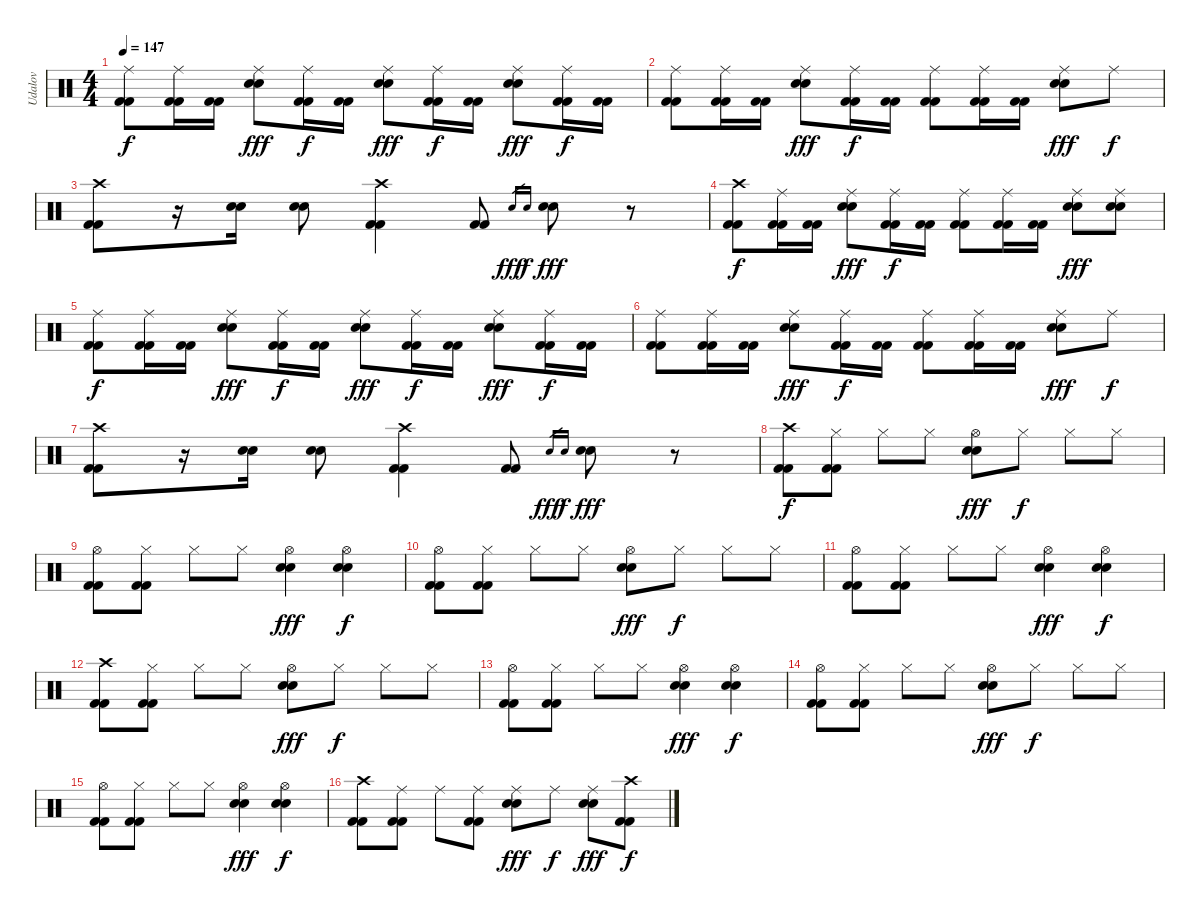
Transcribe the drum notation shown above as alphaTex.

\track ("Udalov" "Udalov") {instrument percussion}
\staff {score}
\articulation defaults
\ts (4 4)
\tempo 147
\clef neutral
\ks c
("Ride (middle)" "Kick (hit) 2" "Kick (hit) 2").8{dy f} ("Ride (middle)" "Kick (hit) 2" "Kick (hit) 2").16 ("Kick (hit) 2" "Kick (hit) 2").16 ("Ride (middle)" "Electric Snare (hit)" "Electric Snare (hit)").8{dy fff} ("Ride (middle)" "Kick (hit) 2" "Kick (hit) 2").16{dy f} ("Kick (hit) 2" "Kick (hit) 2").16 ("Ride (middle)" "Electric Snare (hit)" "Electric Snare (hit)").8{dy fff} ("Ride (middle)" "Kick (hit) 2" "Kick (hit) 2").16{dy f} ("Kick (hit) 2" "Kick (hit) 2").16 ("Ride (middle)" "Electric Snare (hit)" "Electric Snare (hit)").8{dy fff} ("Ride (middle)" "Kick (hit) 2" "Kick (hit) 2").16{dy f} ("Kick (hit) 2" "Kick (hit) 2").16 |
("Ride (middle)" "Kick (hit) 2" "Kick (hit) 2").8 ("Ride (middle)" "Kick (hit) 2" "Kick (hit) 2").16 ("Kick (hit) 2" "Kick (hit) 2").16 ("Ride (middle)" "Electric Snare (hit)" "Electric Snare (hit)").8{dy fff} ("Ride (middle)" "Kick (hit) 2" "Kick (hit) 2").16{dy f} ("Kick (hit) 2" "Kick (hit) 2").16 ("Ride (middle)" "Kick (hit) 2" "Kick (hit) 2").8 ("Ride (middle)" "Kick (hit) 2" "Kick (hit) 2").16 ("Kick (hit) 2" "Kick (hit) 2").16 ("Ride (middle)" "Electric Snare (hit)" "Electric Snare (hit)").8{dy fff} "Ride (middle)".8{dy f} |
("Crash high (hit)" "Kick (hit) 2" "Kick (hit) 2").8 r.16 ("Electric Snare (hit)" "Electric Snare (hit)").16 ("Electric Snare (hit)" "Electric Snare (hit)").8 ("Crash high (hit)" "Kick (hit) 2" "Kick (hit) 2").4 ("Kick (hit) 2" "Kick (hit) 2").8 "Electric Snare (hit)".16{gr dy fff} "Electric Snare (hit)".16{gr dy f} ("Electric Snare (hit)" "Electric Snare (hit)").8{dy fff} r.8 |
("Crash high (hit)" "Kick (hit) 2" "Kick (hit) 2").8{dy f} ("Ride (middle)" "Kick (hit) 2" "Kick (hit) 2").16 ("Kick (hit) 2" "Kick (hit) 2").16 ("Ride (middle)" "Electric Snare (hit)" "Electric Snare (hit)").8{dy fff} ("Ride (middle)" "Kick (hit) 2" "Kick (hit) 2").16{dy f} ("Kick (hit) 2" "Kick (hit) 2").16 ("Ride (middle)" "Kick (hit) 2" "Kick (hit) 2").8 ("Ride (middle)" "Kick (hit) 2" "Kick (hit) 2").16 ("Kick (hit) 2" "Kick (hit) 2").16 ("Ride (middle)" "Electric Snare (hit)" "Electric Snare (hit)").8{dy fff} ("Ride (middle)" "Electric Snare (hit)" "Electric Snare (hit)").8 |
("Ride (middle)" "Kick (hit) 2" "Kick (hit) 2").8{dy f} ("Ride (middle)" "Kick (hit) 2" "Kick (hit) 2").16 ("Kick (hit) 2" "Kick (hit) 2").16 ("Ride (middle)" "Electric Snare (hit)" "Electric Snare (hit)").8{dy fff} ("Ride (middle)" "Kick (hit) 2" "Kick (hit) 2").16{dy f} ("Kick (hit) 2" "Kick (hit) 2").16 ("Ride (middle)" "Electric Snare (hit)" "Electric Snare (hit)").8{dy fff} ("Ride (middle)" "Kick (hit) 2" "Kick (hit) 2").16{dy f} ("Kick (hit) 2" "Kick (hit) 2").16 ("Ride (middle)" "Electric Snare (hit)" "Electric Snare (hit)").8{dy fff} ("Ride (middle)" "Kick (hit) 2" "Kick (hit) 2").16{dy f} ("Kick (hit) 2" "Kick (hit) 2").16 |
("Ride (middle)" "Kick (hit) 2" "Kick (hit) 2").8 ("Ride (middle)" "Kick (hit) 2" "Kick (hit) 2").16 ("Kick (hit) 2" "Kick (hit) 2").16 ("Ride (middle)" "Electric Snare (hit)" "Electric Snare (hit)").8{dy fff} ("Ride (middle)" "Kick (hit) 2" "Kick (hit) 2").16{dy f} ("Kick (hit) 2" "Kick (hit) 2").16 ("Ride (middle)" "Kick (hit) 2" "Kick (hit) 2").8 ("Ride (middle)" "Kick (hit) 2" "Kick (hit) 2").16 ("Kick (hit) 2" "Kick (hit) 2").16 ("Ride (middle)" "Electric Snare (hit)" "Electric Snare (hit)").8{dy fff} "Ride (middle)".8{dy f} |
("Crash high (hit)" "Kick (hit) 2" "Kick (hit) 2").8 r.16 ("Electric Snare (hit)" "Electric Snare (hit)").16 ("Electric Snare (hit)" "Electric Snare (hit)").8 ("Crash high (hit)" "Kick (hit) 2" "Kick (hit) 2").4 ("Kick (hit) 2" "Kick (hit) 2").8 "Electric Snare (hit)".16{gr dy fff} "Electric Snare (hit)".16{gr dy f} ("Electric Snare (hit)" "Electric Snare (hit)").8{dy fff} r.8 |
("Crash high (hit)" "Kick (hit) 2" "Kick (hit) 2").8{dy f} ("Hi-Hat (closed)" "Kick (hit) 2" "Kick (hit) 2").8 "Hi-Hat (closed)".8 "Hi-Hat (closed)".8 ("Hi-Hat (open)" "Electric Snare (hit)" "Electric Snare (hit)").8{dy fff} "Hi-Hat (closed)".8{dy f} "Hi-Hat (closed)".8 "Hi-Hat (closed)".8 |
("Hi-Hat (open)" "Kick (hit) 2" "Kick (hit) 2").8 ("Hi-Hat (closed)" "Kick (hit) 2" "Kick (hit) 2").8 "Hi-Hat (closed)".8 "Hi-Hat (closed)".8 ("Hi-Hat (open)" "Electric Snare (hit)" "Electric Snare (hit)").4{dy fff} ("Hi-Hat (open)" "Electric Snare (hit)" "Electric Snare (hit)").4{dy f} |
("Hi-Hat (open)" "Kick (hit) 2" "Kick (hit) 2").8 ("Hi-Hat (closed)" "Kick (hit) 2" "Kick (hit) 2").8 "Hi-Hat (closed)".8 "Hi-Hat (closed)".8 ("Hi-Hat (open)" "Electric Snare (hit)" "Electric Snare (hit)").8{dy fff} "Hi-Hat (closed)".8{dy f} "Hi-Hat (closed)".8 "Hi-Hat (closed)".8 |
("Hi-Hat (open)" "Kick (hit) 2" "Kick (hit) 2").8 ("Hi-Hat (closed)" "Kick (hit) 2" "Kick (hit) 2").8 "Hi-Hat (closed)".8 "Hi-Hat (closed)".8 ("Hi-Hat (open)" "Electric Snare (hit)" "Electric Snare (hit)").4{dy fff} ("Hi-Hat (open)" "Electric Snare (hit)" "Electric Snare (hit)").4{dy f} |
("Crash high (hit)" "Kick (hit) 2" "Kick (hit) 2").8 ("Hi-Hat (closed)" "Kick (hit) 2" "Kick (hit) 2").8 "Hi-Hat (closed)".8 "Hi-Hat (closed)".8 ("Hi-Hat (open)" "Electric Snare (hit)" "Electric Snare (hit)").8{dy fff} "Hi-Hat (closed)".8{dy f} "Hi-Hat (closed)".8 "Hi-Hat (closed)".8 |
("Hi-Hat (open)" "Kick (hit) 2" "Kick (hit) 2").8 ("Hi-Hat (closed)" "Kick (hit) 2" "Kick (hit) 2").8 "Hi-Hat (closed)".8 "Hi-Hat (closed)".8 ("Hi-Hat (open)" "Electric Snare (hit)" "Electric Snare (hit)").4{dy fff} ("Hi-Hat (open)" "Electric Snare (hit)" "Electric Snare (hit)").4{dy f} |
("Hi-Hat (open)" "Kick (hit) 2" "Kick (hit) 2").8 ("Hi-Hat (closed)" "Kick (hit) 2" "Kick (hit) 2").8 "Hi-Hat (closed)".8 "Hi-Hat (closed)".8 ("Hi-Hat (open)" "Electric Snare (hit)" "Electric Snare (hit)").8{dy fff} "Hi-Hat (closed)".8{dy f} "Hi-Hat (closed)".8 "Hi-Hat (closed)".8 |
("Hi-Hat (open)" "Kick (hit) 2" "Kick (hit) 2").8 ("Hi-Hat (closed)" "Kick (hit) 2" "Kick (hit) 2").8 "Hi-Hat (closed)".8 "Hi-Hat (closed)".8 ("Hi-Hat (open)" "Electric Snare (hit)" "Electric Snare (hit)").4{dy fff} ("Hi-Hat (open)" "Electric Snare (hit)" "Electric Snare (hit)").4{dy f} |
("Crash high (hit)" "Kick (hit) 2" "Kick (hit) 2").8 ("Ride (middle)" "Kick (hit) 2" "Kick (hit) 2").8 "Ride (middle)".8 ("Ride (middle)" "Kick (hit) 2" "Kick (hit) 2").8 ("Ride (middle)" "Electric Snare (hit)" "Electric Snare (hit)").8{dy fff} "Ride (middle)".8{dy f} ("Ride (middle)" "Electric Snare (hit)" "Electric Snare (hit)").8{dy fff} ("Crash high (hit)" "Kick (hit) 2" "Kick (hit) 2").8{dy f}
